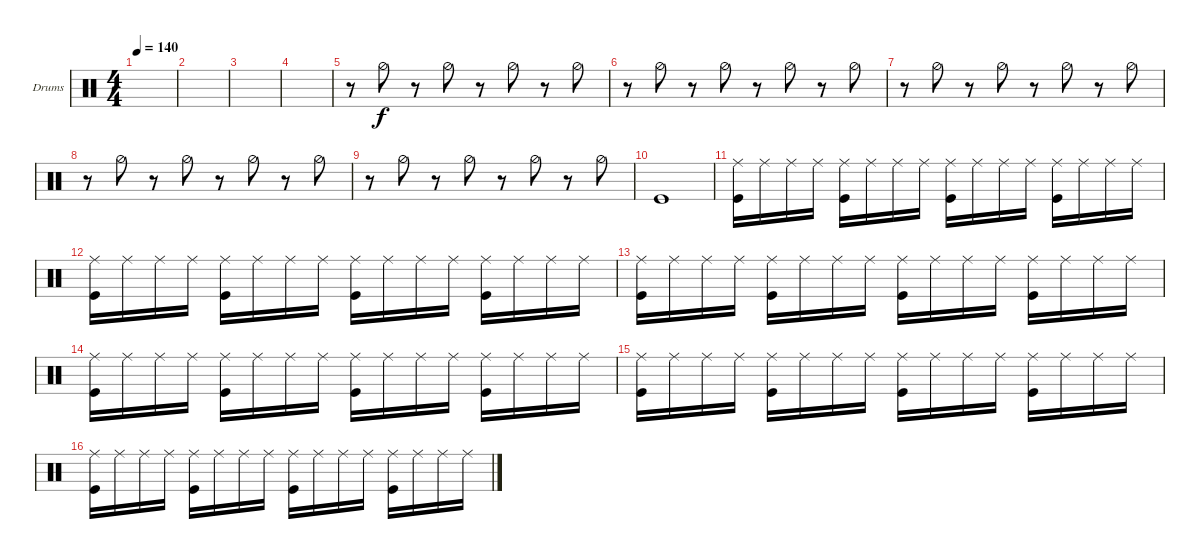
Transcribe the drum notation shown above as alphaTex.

\defaultSystemsLayout 4
\bracketExtendMode groupsimilarinstruments
\firstSystemTrackNameOrientation horizontal
\otherSystemsTrackNameOrientation horizontal
\track ("Drumkit" "Drums") {instrument percussion}
\staff {score}
\articulation defaults
\ts (4 4)
\tempo 140
\clef neutral
\ks c
|
|
|
|
r.8 "Hi-Hat (half)".8 r.8 "Hi-Hat (half)".8 r.8 "Hi-Hat (half)".8 r.8 "Hi-Hat (half)".8 |
r.8 "Hi-Hat (half)".8 r.8 "Hi-Hat (half)".8 r.8 "Hi-Hat (half)".8 r.8 "Hi-Hat (half)".8 |
r.8 "Hi-Hat (half)".8 r.8 "Hi-Hat (half)".8 r.8 "Hi-Hat (half)".8 r.8 "Hi-Hat (half)".8 |
r.8 "Hi-Hat (half)".8 r.8 "Hi-Hat (half)".8 r.8 "Hi-Hat (half)".8 r.8 "Hi-Hat (half)".8 |
r.8 "Hi-Hat (half)".8 r.8 "Hi-Hat (half)".8 r.8 "Hi-Hat (half)".8 r.8 "Hi-Hat (half)".8 |
"Kick (hit)".1 |
("Ride (middle)" "Kick (hit)").16 "Ride (middle)".16 "Ride (middle)".16 "Ride (middle)".16 ("Ride (middle)" "Kick (hit)").16 "Ride (middle)".16 "Ride (middle)".16 "Ride (middle)".16 ("Ride (middle)" "Kick (hit)").16 "Ride (middle)".16 "Ride (middle)".16 "Ride (middle)".16 ("Ride (middle)" "Kick (hit)").16 "Ride (middle)".16 "Ride (middle)".16 "Ride (middle)".16 |
("Ride (middle)" "Kick (hit)").16 "Ride (middle)".16 "Ride (middle)".16 "Ride (middle)".16 ("Ride (middle)" "Kick (hit)").16 "Ride (middle)".16 "Ride (middle)".16 "Ride (middle)".16 ("Ride (middle)" "Kick (hit)").16 "Ride (middle)".16 "Ride (middle)".16 "Ride (middle)".16 ("Ride (middle)" "Kick (hit)").16 "Ride (middle)".16 "Ride (middle)".16 "Ride (middle)".16 |
("Ride (middle)" "Kick (hit)").16 "Ride (middle)".16 "Ride (middle)".16 "Ride (middle)".16 ("Ride (middle)" "Kick (hit)").16 "Ride (middle)".16 "Ride (middle)".16 "Ride (middle)".16 ("Ride (middle)" "Kick (hit)").16 "Ride (middle)".16 "Ride (middle)".16 "Ride (middle)".16 ("Ride (middle)" "Kick (hit)").16 "Ride (middle)".16 "Ride (middle)".16 "Ride (middle)".16 |
("Ride (middle)" "Kick (hit)").16 "Ride (middle)".16 "Ride (middle)".16 "Ride (middle)".16 ("Ride (middle)" "Kick (hit)").16 "Ride (middle)".16 "Ride (middle)".16 "Ride (middle)".16 ("Ride (middle)" "Kick (hit)").16 "Ride (middle)".16 "Ride (middle)".16 "Ride (middle)".16 ("Ride (middle)" "Kick (hit)").16 "Ride (middle)".16 "Ride (middle)".16 "Ride (middle)".16 |
("Ride (middle)" "Kick (hit)").16 "Ride (middle)".16 "Ride (middle)".16 "Ride (middle)".16 ("Ride (middle)" "Kick (hit)").16 "Ride (middle)".16 "Ride (middle)".16 "Ride (middle)".16 ("Ride (middle)" "Kick (hit)").16 "Ride (middle)".16 "Ride (middle)".16 "Ride (middle)".16 ("Ride (middle)" "Kick (hit)").16 "Ride (middle)".16 "Ride (middle)".16 "Ride (middle)".16 |
("Ride (middle)" "Kick (hit)").16 "Ride (middle)".16 "Ride (middle)".16 "Ride (middle)".16 ("Ride (middle)" "Kick (hit)").16 "Ride (middle)".16 "Ride (middle)".16 "Ride (middle)".16 ("Ride (middle)" "Kick (hit)").16 "Ride (middle)".16 "Ride (middle)".16 "Ride (middle)".16 ("Ride (middle)" "Kick (hit)").16 "Ride (middle)".16 "Ride (middle)".16 "Ride (middle)".16
